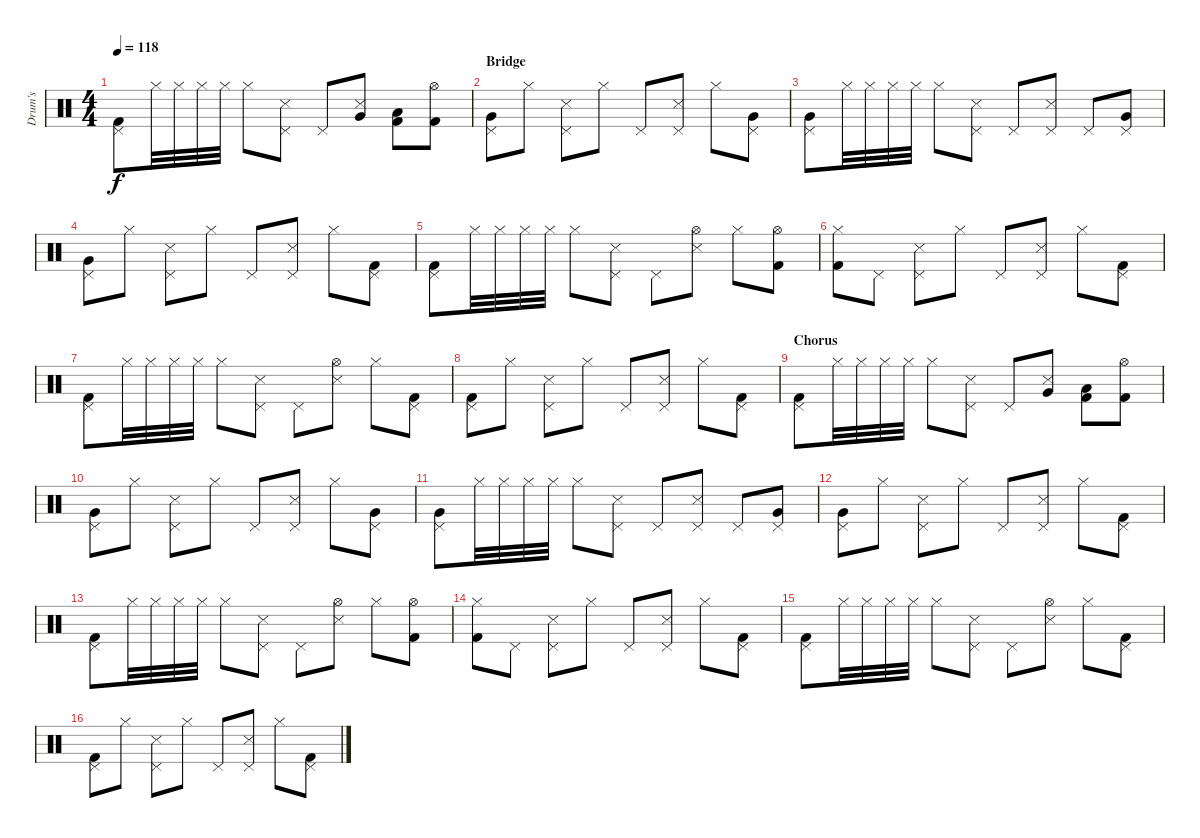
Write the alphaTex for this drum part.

\track ("Drum's" "Drum's") {instrument percussion}
\staff {score}
\articulation defaults
\ts (4 4)
\tempo 118
\clef neutral
\ks c
("Pedal Hi-Hat (hit)" "Kick (hit) 2").8{dy f} "Hi-Hat (closed)".32 "Hi-Hat (closed)".32 "Hi-Hat (closed)".32 "Hi-Hat (closed)".32 "Hi-Hat (closed)".8 ("Pedal Hi-Hat (hit)" "Snare (side stick) 3").8 "Pedal Hi-Hat (hit)".8 ("Snare (side stick) 3" "Very Low Tom (hit)").8 ("Kick (hit) 2" "Low Tom (hit)").8 ("Hi-Hat (open)" "Kick (hit) 2").8 |
\section ("" "Bridge")
("Pedal Hi-Hat (hit)" "Very Low Tom (hit)").8 "Hi-Hat (closed)".8 ("Pedal Hi-Hat (hit)" "Snare (side stick) 3").8 "Hi-Hat (closed)".8 "Pedal Hi-Hat (hit)".8 ("Pedal Hi-Hat (hit)" "Snare (side stick) 3").8 "Hi-Hat (closed)".8 ("Pedal Hi-Hat (hit)" "Very Low Tom (hit)").8 |
("Pedal Hi-Hat (hit)" "Very Low Tom (hit)").8 "Hi-Hat (closed)".32 "Hi-Hat (closed)".32 "Hi-Hat (closed)".32 "Hi-Hat (closed)".32 "Hi-Hat (closed)".8 ("Pedal Hi-Hat (hit)" "Snare (side stick) 3").8 "Pedal Hi-Hat (hit)".8 ("Pedal Hi-Hat (hit)" "Snare (side stick) 3").8 "Pedal Hi-Hat (hit)".8 ("Pedal Hi-Hat (hit)" "Very Low Tom (hit)").8 |
("Pedal Hi-Hat (hit)" "Very Low Tom (hit)").8 "Hi-Hat (closed)".8 ("Pedal Hi-Hat (hit)" "Snare (side stick) 3").8 "Hi-Hat (closed)".8 "Pedal Hi-Hat (hit)".8 ("Pedal Hi-Hat (hit)" "Snare (side stick) 3").8 "Hi-Hat (closed)".8 ("Pedal Hi-Hat (hit)" "Kick (hit) 2").8 |
("Pedal Hi-Hat (hit)" "Kick (hit) 2").8 "Hi-Hat (closed)".32 "Hi-Hat (closed)".32 "Hi-Hat (closed)".32 "Hi-Hat (closed)".32 "Hi-Hat (closed)".8 ("Pedal Hi-Hat (hit)" "Snare (side stick) 3").8 "Pedal Hi-Hat (hit)".8 ("Hi-Hat (open)" "Snare (side stick) 3").8 "Hi-Hat (closed)".8 ("Hi-Hat (open)" "Kick (hit) 2").8 |
("Hi-Hat (closed)" "Kick (hit) 2").8 "Pedal Hi-Hat (hit)".8 ("Pedal Hi-Hat (hit)" "Snare (side stick) 3").8 "Hi-Hat (closed)".8 "Pedal Hi-Hat (hit)".8 ("Pedal Hi-Hat (hit)" "Snare (side stick) 3").8 "Hi-Hat (closed)".8 ("Pedal Hi-Hat (hit)" "Kick (hit) 2").8 |
("Pedal Hi-Hat (hit)" "Kick (hit) 2").8 "Hi-Hat (closed)".32 "Hi-Hat (closed)".32 "Hi-Hat (closed)".32 "Hi-Hat (closed)".32 "Hi-Hat (closed)".8 ("Pedal Hi-Hat (hit)" "Snare (side stick) 3").8 "Pedal Hi-Hat (hit)".8 ("Hi-Hat (open)" "Snare (side stick) 3").8 "Hi-Hat (closed)".8 ("Pedal Hi-Hat (hit)" "Kick (hit) 2").8 |
("Pedal Hi-Hat (hit)" "Kick (hit) 2").8 "Hi-Hat (closed)".8 ("Pedal Hi-Hat (hit)" "Snare (side stick) 3").8 "Hi-Hat (closed)".8 "Pedal Hi-Hat (hit)".8 ("Pedal Hi-Hat (hit)" "Snare (side stick) 3").8 "Hi-Hat (closed)".8 ("Pedal Hi-Hat (hit)" "Kick (hit) 2").8 |
\section ("" "Chorus")
("Pedal Hi-Hat (hit)" "Kick (hit) 2").8 "Hi-Hat (closed)".32 "Hi-Hat (closed)".32 "Hi-Hat (closed)".32 "Hi-Hat (closed)".32 "Hi-Hat (closed)".8 ("Pedal Hi-Hat (hit)" "Snare (side stick) 3").8 "Pedal Hi-Hat (hit)".8 ("Snare (side stick) 3" "Very Low Tom (hit)").8 ("Kick (hit) 2" "Low Tom (hit)").8 ("Hi-Hat (open)" "Kick (hit) 2").8 |
("Pedal Hi-Hat (hit)" "Very Low Tom (hit)").8 "Hi-Hat (closed)".8 ("Pedal Hi-Hat (hit)" "Snare (side stick) 3").8 "Hi-Hat (closed)".8 "Pedal Hi-Hat (hit)".8 ("Pedal Hi-Hat (hit)" "Snare (side stick) 3").8 "Hi-Hat (closed)".8 ("Pedal Hi-Hat (hit)" "Very Low Tom (hit)").8 |
("Pedal Hi-Hat (hit)" "Very Low Tom (hit)").8 "Hi-Hat (closed)".32 "Hi-Hat (closed)".32 "Hi-Hat (closed)".32 "Hi-Hat (closed)".32 "Hi-Hat (closed)".8 ("Pedal Hi-Hat (hit)" "Snare (side stick) 3").8 "Pedal Hi-Hat (hit)".8 ("Pedal Hi-Hat (hit)" "Snare (side stick) 3").8 "Pedal Hi-Hat (hit)".8 ("Pedal Hi-Hat (hit)" "Very Low Tom (hit)").8 |
("Pedal Hi-Hat (hit)" "Very Low Tom (hit)").8 "Hi-Hat (closed)".8 ("Pedal Hi-Hat (hit)" "Snare (side stick) 3").8 "Hi-Hat (closed)".8 "Pedal Hi-Hat (hit)".8 ("Pedal Hi-Hat (hit)" "Snare (side stick) 3").8 "Hi-Hat (closed)".8 ("Pedal Hi-Hat (hit)" "Kick (hit) 2").8 |
("Pedal Hi-Hat (hit)" "Kick (hit) 2").8 "Hi-Hat (closed)".32 "Hi-Hat (closed)".32 "Hi-Hat (closed)".32 "Hi-Hat (closed)".32 "Hi-Hat (closed)".8 ("Pedal Hi-Hat (hit)" "Snare (side stick) 3").8 "Pedal Hi-Hat (hit)".8 ("Hi-Hat (open)" "Snare (side stick) 3").8 "Hi-Hat (closed)".8 ("Hi-Hat (open)" "Kick (hit) 2").8 |
("Hi-Hat (closed)" "Kick (hit) 2").8 "Pedal Hi-Hat (hit)".8 ("Pedal Hi-Hat (hit)" "Snare (side stick) 3").8 "Hi-Hat (closed)".8 "Pedal Hi-Hat (hit)".8 ("Pedal Hi-Hat (hit)" "Snare (side stick) 3").8 "Hi-Hat (closed)".8 ("Pedal Hi-Hat (hit)" "Kick (hit) 2").8 |
("Pedal Hi-Hat (hit)" "Kick (hit) 2").8 "Hi-Hat (closed)".32 "Hi-Hat (closed)".32 "Hi-Hat (closed)".32 "Hi-Hat (closed)".32 "Hi-Hat (closed)".8 ("Pedal Hi-Hat (hit)" "Snare (side stick) 3").8 "Pedal Hi-Hat (hit)".8 ("Hi-Hat (open)" "Snare (side stick) 3").8 "Hi-Hat (closed)".8 ("Pedal Hi-Hat (hit)" "Kick (hit) 2").8 |
("Pedal Hi-Hat (hit)" "Kick (hit) 2").8 "Hi-Hat (closed)".8 ("Pedal Hi-Hat (hit)" "Snare (side stick) 3").8 "Hi-Hat (closed)".8 "Pedal Hi-Hat (hit)".8 ("Pedal Hi-Hat (hit)" "Snare (side stick) 3").8 "Hi-Hat (closed)".8 ("Pedal Hi-Hat (hit)" "Kick (hit) 2").8
